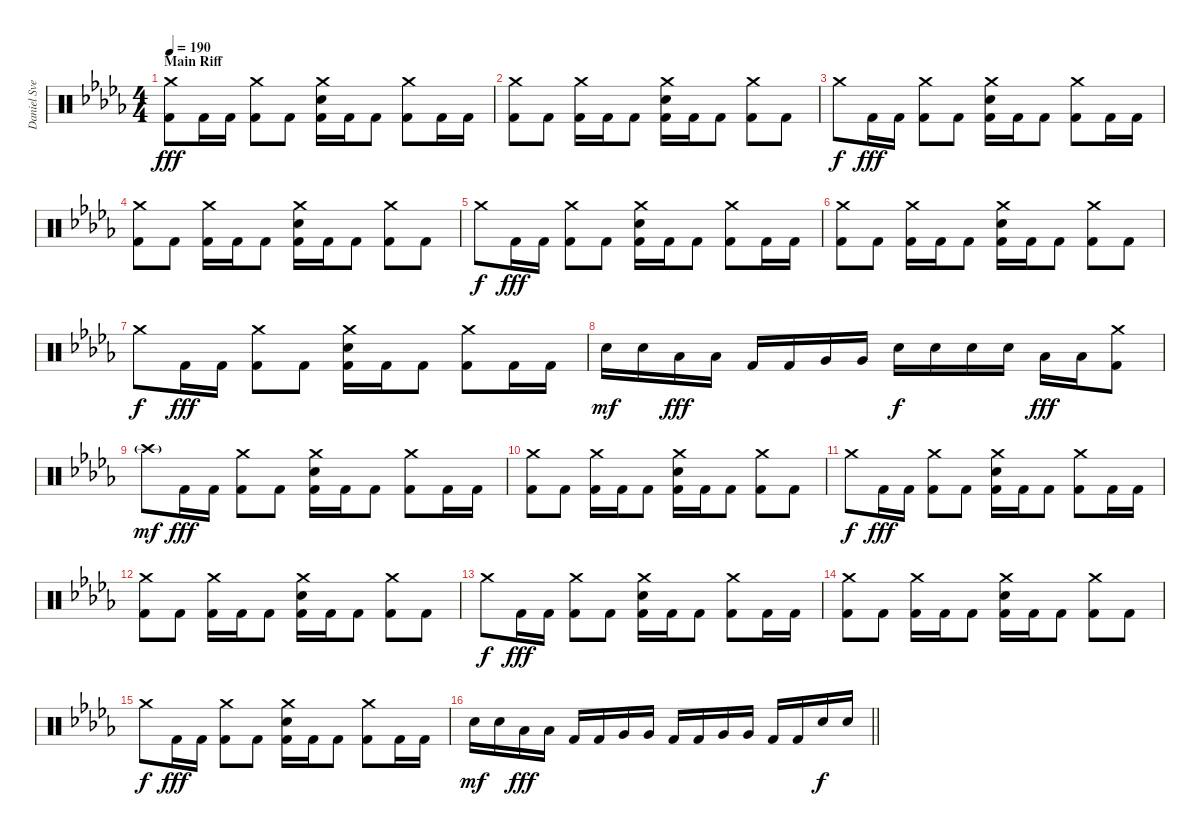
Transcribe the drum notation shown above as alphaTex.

\track ("Daniel Svensson" "Daniel Sve") {instrument percussion}
\staff {score}
\articulation defaults
\ts (4 4)
\section ("" "Main Riff")
\tempo 190
\clef neutral
\ks db
("Crash medium (hit)" "Kick (hit) 2").8{dy fff} "Kick (hit) 2".16 "Kick (hit) 2".16 ("Crash medium (hit)" "Kick (hit) 2").8 "Kick (hit) 2".8 ("Crash medium (hit)" "Electric Snare (hit)" "Kick (hit) 2").16 "Kick (hit) 2".16 "Kick (hit) 2".8 ("Crash medium (hit)" "Kick (hit) 2").8 "Kick (hit) 2".16 "Kick (hit) 2".16 |
("Crash medium (hit)" "Kick (hit) 2").8 "Kick (hit) 2".8 ("Crash medium (hit)" "Kick (hit) 2").16 "Kick (hit) 2".16 "Kick (hit) 2".8 ("Crash medium (hit)" "Electric Snare (hit)" "Kick (hit) 2").16 "Kick (hit) 2".16 "Kick (hit) 2".8 ("Crash medium (hit)" "Kick (hit) 2").8 "Kick (hit) 2".8 |
"Crash medium (hit)".8{dy f} "Kick (hit) 2".16{dy fff} "Kick (hit) 2".16 ("Crash medium (hit)" "Kick (hit) 2").8 "Kick (hit) 2".8 ("Crash medium (hit)" "Electric Snare (hit)" "Kick (hit) 2").16 "Kick (hit) 2".16 "Kick (hit) 2".8 ("Crash medium (hit)" "Kick (hit) 2").8 "Kick (hit) 2".16 "Kick (hit) 2".16 |
("Crash medium (hit)" "Kick (hit) 2").8 "Kick (hit) 2".8 ("Crash medium (hit)" "Kick (hit) 2").16 "Kick (hit) 2".16 "Kick (hit) 2".8 ("Crash medium (hit)" "Electric Snare (hit)" "Kick (hit) 2").16 "Kick (hit) 2".16 "Kick (hit) 2".8 ("Crash medium (hit)" "Kick (hit) 2").8 "Kick (hit) 2".8 |
"Crash medium (hit)".8{dy f} "Kick (hit) 2".16{dy fff} "Kick (hit) 2".16 ("Crash medium (hit)" "Kick (hit) 2").8 "Kick (hit) 2".8 ("Crash medium (hit)" "Electric Snare (hit)" "Kick (hit) 2").16 "Kick (hit) 2".16 "Kick (hit) 2".8 ("Crash medium (hit)" "Kick (hit) 2").8 "Kick (hit) 2".16 "Kick (hit) 2".16 |
("Crash medium (hit)" "Kick (hit) 2").8 "Kick (hit) 2".8 ("Crash medium (hit)" "Kick (hit) 2").16 "Kick (hit) 2".16 "Kick (hit) 2".8 ("Crash medium (hit)" "Electric Snare (hit)" "Kick (hit) 2").16 "Kick (hit) 2".16 "Kick (hit) 2".8 ("Crash medium (hit)" "Kick (hit) 2").8 "Kick (hit) 2".8 |
"Crash medium (hit)".8{dy f} "Kick (hit) 2".16{dy fff} "Kick (hit) 2".16 ("Crash medium (hit)" "Kick (hit) 2").8 "Kick (hit) 2".8 ("Crash medium (hit)" "Electric Snare (hit)" "Kick (hit) 2").16 "Kick (hit) 2".16 "Kick (hit) 2".8 ("Crash medium (hit)" "Kick (hit) 2").8 "Kick (hit) 2".16 "Kick (hit) 2".16 |
"Electric Snare (hit)".16{dy mf} "Electric Snare (hit)".16 "Low Tom (hit)".16{dy fff} "Low Tom (hit)".16 "Kick (hit) 2".16 "Kick (hit) 2".16 "Very Low Tom (hit)".16 "Very Low Tom (hit)".16 "Electric Snare (hit)".16{dy f} "Electric Snare (hit)".16 "Electric Snare (hit)".16 "Electric Snare (hit)".16 "Low Tom (hit)".16{dy fff} "Low Tom (hit)".16 ("Crash medium (hit)" "Kick (hit) 2").8 |
"Crash high (hit)"{g}.8{dy mf} "Kick (hit) 2".16{dy fff} "Kick (hit) 2".16 ("Crash medium (hit)" "Kick (hit) 2").8 "Kick (hit) 2".8 ("Crash medium (hit)" "Electric Snare (hit)" "Kick (hit) 2").16 "Kick (hit) 2".16 "Kick (hit) 2".8 ("Crash medium (hit)" "Kick (hit) 2").8 "Kick (hit) 2".16 "Kick (hit) 2".16 |
("Crash medium (hit)" "Kick (hit) 2").8 "Kick (hit) 2".8 ("Crash medium (hit)" "Kick (hit) 2").16 "Kick (hit) 2".16 "Kick (hit) 2".8 ("Crash medium (hit)" "Electric Snare (hit)" "Kick (hit) 2").16 "Kick (hit) 2".16 "Kick (hit) 2".8 ("Crash medium (hit)" "Kick (hit) 2").8 "Kick (hit) 2".8 |
"Crash medium (hit)".8{dy f} "Kick (hit) 2".16{dy fff} "Kick (hit) 2".16 ("Crash medium (hit)" "Kick (hit) 2").8 "Kick (hit) 2".8 ("Crash medium (hit)" "Electric Snare (hit)" "Kick (hit) 2").16 "Kick (hit) 2".16 "Kick (hit) 2".8 ("Crash medium (hit)" "Kick (hit) 2").8 "Kick (hit) 2".16 "Kick (hit) 2".16 |
("Crash medium (hit)" "Kick (hit) 2").8 "Kick (hit) 2".8 ("Crash medium (hit)" "Kick (hit) 2").16 "Kick (hit) 2".16 "Kick (hit) 2".8 ("Crash medium (hit)" "Electric Snare (hit)" "Kick (hit) 2").16 "Kick (hit) 2".16 "Kick (hit) 2".8 ("Crash medium (hit)" "Kick (hit) 2").8 "Kick (hit) 2".8 |
"Crash medium (hit)".8{dy f} "Kick (hit) 2".16{dy fff} "Kick (hit) 2".16 ("Crash medium (hit)" "Kick (hit) 2").8 "Kick (hit) 2".8 ("Crash medium (hit)" "Electric Snare (hit)" "Kick (hit) 2").16 "Kick (hit) 2".16 "Kick (hit) 2".8 ("Crash medium (hit)" "Kick (hit) 2").8 "Kick (hit) 2".16 "Kick (hit) 2".16 |
("Crash medium (hit)" "Kick (hit) 2").8 "Kick (hit) 2".8 ("Crash medium (hit)" "Kick (hit) 2").16 "Kick (hit) 2".16 "Kick (hit) 2".8 ("Crash medium (hit)" "Electric Snare (hit)" "Kick (hit) 2").16 "Kick (hit) 2".16 "Kick (hit) 2".8 ("Crash medium (hit)" "Kick (hit) 2").8 "Kick (hit) 2".8 |
"Crash medium (hit)".8{dy f} "Kick (hit) 2".16{dy fff} "Kick (hit) 2".16 ("Crash medium (hit)" "Kick (hit) 2").8 "Kick (hit) 2".8 ("Crash medium (hit)" "Electric Snare (hit)" "Kick (hit) 2").16 "Kick (hit) 2".16 "Kick (hit) 2".8 ("Crash medium (hit)" "Kick (hit) 2").8 "Kick (hit) 2".16 "Kick (hit) 2".16 |
\barLineRight lightlight "Electric Snare (hit)".16{dy mf} "Electric Snare (hit)".16 "Low Tom (hit)".16{dy fff} "Low Tom (hit)".16 "Kick (hit) 2".16 "Kick (hit) 2".16 "Very Low Tom (hit)".16 "Very Low Tom (hit)".16 "Kick (hit) 2".16 "Kick (hit) 2".16 "Very Low Tom (hit)".16 "Very Low Tom (hit)".16 "Kick (hit) 2".16 "Kick (hit) 2".16 "Electric Snare (hit)".16{dy f} "Electric Snare (hit)".16
